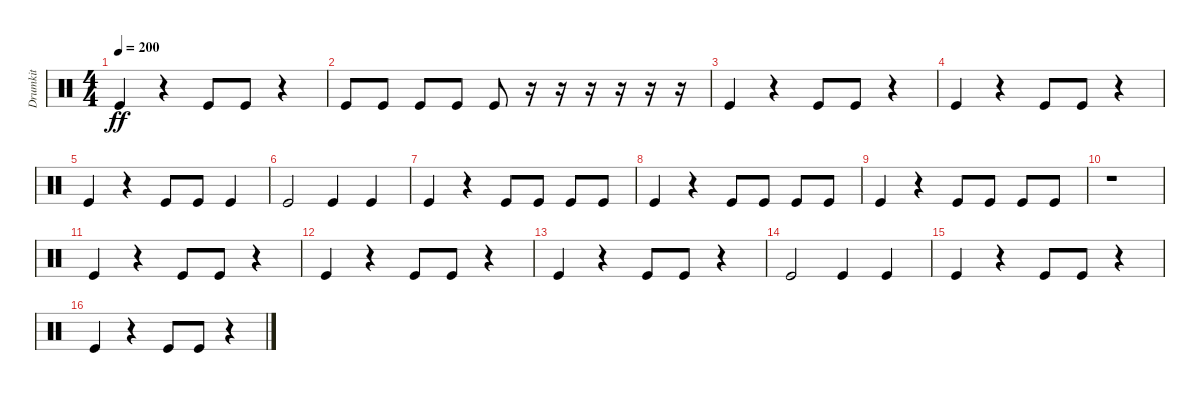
\track ("Drumkit" "Drumkit") {instrument percussion}
\staff {score}
\articulation defaults
\ts (4 4)
\tempo 200
\clef neutral
\ks c "Kick (hit)".4{dy ff}
r.4 "Kick (hit)".8 "Kick (hit)".8 r.4 |
"Kick (hit)".8 "Kick (hit)".8 "Kick (hit)".8 "Kick (hit)".8 "Kick (hit)".8 r.16 r.16 r.16 r.16 r.16 r.16 |
"Kick (hit)".4 r.4 "Kick (hit)".8 "Kick (hit)".8 r.4 |
"Kick (hit)".4 r.4 "Kick (hit)".8 "Kick (hit)".8 r.4 |
"Kick (hit)".4 r.4 "Kick (hit)".8 "Kick (hit)".8 "Kick (hit)".4 |
"Kick (hit)".2 "Kick (hit)".4 "Kick (hit)".4 |
"Kick (hit)".4 r.4 "Kick (hit)".8 "Kick (hit)".8 "Kick (hit)".8 "Kick (hit)".8 |
"Kick (hit)".4 r.4 "Kick (hit)".8 "Kick (hit)".8 "Kick (hit)".8 "Kick (hit)".8 |
"Kick (hit)".4 r.4 "Kick (hit)".8 "Kick (hit)".8 "Kick (hit)".8 "Kick (hit)".8 |
r.1 |
"Kick (hit)".4 r.4 "Kick (hit)".8 "Kick (hit)".8 r.4 |
"Kick (hit)".4 r.4 "Kick (hit)".8 "Kick (hit)".8 r.4 |
"Kick (hit)".4 r.4 "Kick (hit)".8 "Kick (hit)".8 r.4 |
"Kick (hit)".2 "Kick (hit)".4 "Kick (hit)".4 |
"Kick (hit)".4 r.4 "Kick (hit)".8 "Kick (hit)".8 r.4 |
"Kick (hit)".4 r.4 "Kick (hit)".8 "Kick (hit)".8 r.4
